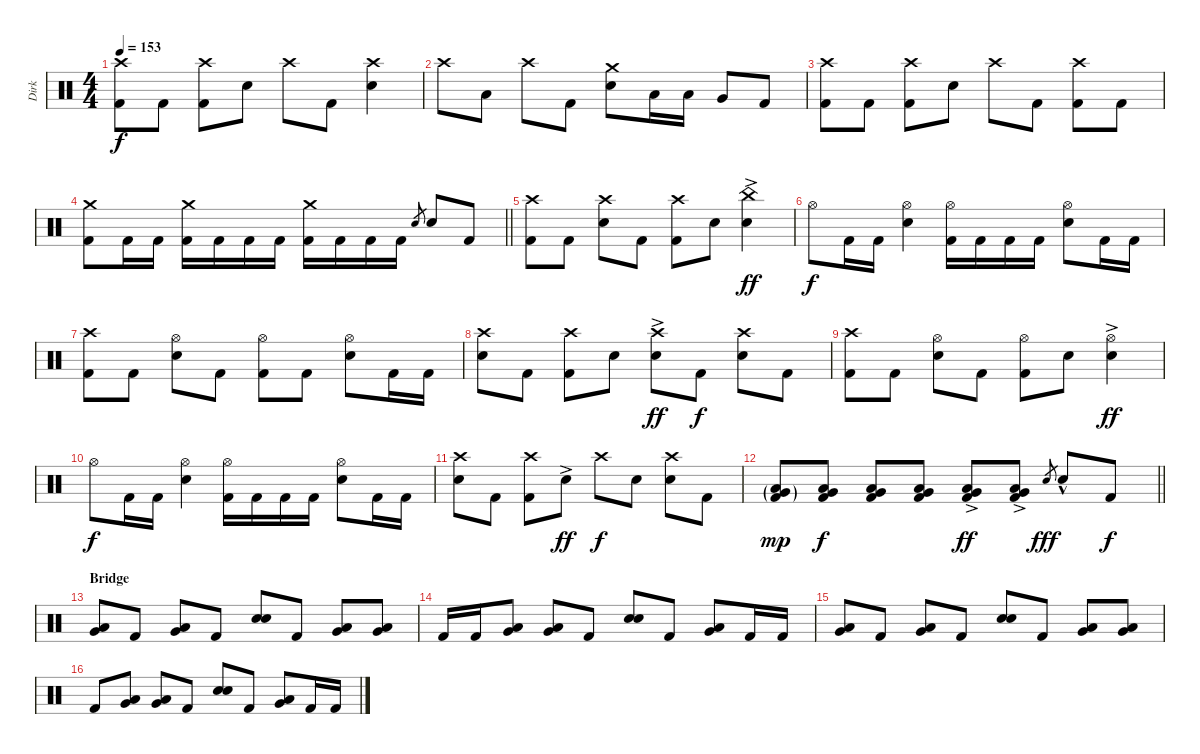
\track ("Dirk" "Dirk") {instrument percussion}
\staff {score}
\articulation defaults
\ts (4 4)
\tempo 153
\clef neutral
\ks c
("Crash high (hit)" "Kick (hit) 2").8{dy f} "Kick (hit) 2".8 ("Crash high (hit)" "Kick (hit) 2").8 "Electric Snare (hit)".8 "Crash high (hit)".8 "Kick (hit) 2".8 ("Crash high (hit)" "Electric Snare (hit)").4 |
"Crash high (hit)".8 "Low Tom (hit)".8 "Crash high (hit)".8 "Kick (hit) 2".8 ("Crash medium (hit)" "Electric Snare (hit)").8 "Low Tom (hit)".16 "Low Tom (hit)".16 "Very Low Tom (hit)".8 "Kick (hit) 2".8 |
("Crash high (hit)" "Kick (hit) 2").8 "Kick (hit) 2".8 ("Crash high (hit)" "Kick (hit) 2").8 "Electric Snare (hit)".8 "Crash high (hit)".8 "Kick (hit) 2".8 ("Crash high (hit)" "Kick (hit) 2").8 "Kick (hit) 2".8 |
\barLineRight lightlight
("Crash medium (hit)" "Kick (hit) 2").8 "Kick (hit) 2".16 "Kick (hit) 2".16 ("Crash medium (hit)" "Kick (hit) 2").16 "Kick (hit) 2".16 "Kick (hit) 2".16 "Kick (hit) 2".16 ("Crash medium (hit)" "Kick (hit) 2").16 "Kick (hit) 2".16 "Kick (hit) 2".16 "Kick (hit) 2".16 "Electric Snare (hit)".8{gr} "Electric Snare (hit)".8 "Kick (hit) 2".8 |
\section ("" "")
("Crash high (hit)" "Kick (hit) 2").8 "Kick (hit) 2".8 ("Crash high (hit)" "Electric Snare (hit)").8 "Kick (hit) 2".8 ("Crash high (hit)" "Kick (hit) 2").8 "Electric Snare (hit)".8 ("China (hit)" "Electric Snare (hit)"{ac}).4{dy ff} |
"Hi-Hat (open)".8{dy f} "Kick (hit) 2".16 "Kick (hit) 2".16 ("Hi-Hat (open)" "Electric Snare (hit)").4 ("Hi-Hat (open)" "Kick (hit) 2").16 "Kick (hit) 2".16 "Kick (hit) 2".16 "Kick (hit) 2".16 ("Hi-Hat (open)" "Electric Snare (hit)").8 "Kick (hit) 2".16 "Kick (hit) 2".16 |
("Crash high (hit)" "Kick (hit) 2").8 "Kick (hit) 2".8 ("Hi-Hat (open)" "Electric Snare (hit)").8 "Kick (hit) 2".8 ("Hi-Hat (open)" "Kick (hit) 2").8 "Kick (hit) 2".8 ("Hi-Hat (open)" "Electric Snare (hit)").8 "Kick (hit) 2".16 "Kick (hit) 2".16 |
("Crash high (hit)" "Electric Snare (hit)").8 "Kick (hit) 2".8 ("Crash high (hit)" "Kick (hit) 2").8 "Electric Snare (hit)".8 ("Crash high (hit)" "Electric Snare (hit)"{ac}).8{dy ff} "Kick (hit) 2".8{dy f} ("Crash high (hit)" "Electric Snare (hit)").8 "Kick (hit) 2".8 |
("Crash high (hit)" "Kick (hit) 2").8 "Kick (hit) 2".8 ("Hi-Hat (open)" "Electric Snare (hit)").8 "Kick (hit) 2".8 ("Hi-Hat (open)" "Kick (hit) 2").8 "Electric Snare (hit)".8 ("Hi-Hat (open)" "Electric Snare (hit)"{ac}).4{dy ff} |
"Hi-Hat (open)".8{dy f} "Kick (hit) 2".16 "Kick (hit) 2".16 ("Hi-Hat (open)" "Electric Snare (hit)").4 ("Hi-Hat (open)" "Kick (hit) 2").16 "Kick (hit) 2".16 "Kick (hit) 2".16 "Kick (hit) 2".16 ("Hi-Hat (open)" "Electric Snare (hit)").8 "Kick (hit) 2".16 "Kick (hit) 2".16 |
("Crash high (hit)" "Electric Snare (hit)").8 "Kick (hit) 2".8 ("Crash high (hit)" "Kick (hit) 2").8 "Electric Snare (hit)"{ac}.8{dy ff} "Crash high (hit)".8{dy f} "Electric Snare (hit)".8 ("Crash high (hit)" "Electric Snare (hit)").8 "Kick (hit) 2".8 |
\barLineRight lightlight
("Very Low Tom (hit)"{g} "Low Floor Tom (hit)"{g} "Kick (hit) 2"{g}).8{dy mp} ("Very Low Tom (hit)" "Low Floor Tom (hit)" "Kick (hit) 2").8{dy f} ("Very Low Tom (hit)" "Low Floor Tom (hit)" "Kick (hit) 2").8 ("Very Low Tom (hit)" "Low Floor Tom (hit)" "Kick (hit) 2").8 ("Very Low Tom (hit)"{ac} "Low Floor Tom (hit)"{ac} "Kick (hit) 2"{ac}).8{dy ff} ("Very Low Tom (hit)"{ac} "Low Floor Tom (hit)"{ac} "Kick (hit) 2"{ac}).8 "Electric Snare (hit)".8{gr dy fff} "Electric Snare (hit)"{hac}.8 "Kick (hit) 2".8{dy f} |
\section ("" "Bridge")
("Low Tom (hit)" "Very Low Tom (hit)").8 "Kick (hit) 2".8 ("Very Low Tom (hit)" "Low Floor Tom (hit)").8 "Kick (hit) 2".8 ("Electric Snare (hit)" "Electric Snare (hit)").8 "Kick (hit) 2".8 ("Very Low Tom (hit)" "Low Floor Tom (hit)").8 ("Very Low Tom (hit)" "Low Floor Tom (hit)").8 |
"Kick (hit) 2".16 "Kick (hit) 2".16 ("Very Low Tom (hit)" "Low Floor Tom (hit)").8 ("Very Low Tom (hit)" "Low Floor Tom (hit)").8 "Kick (hit) 2".8 ("Electric Snare (hit)" "Electric Snare (hit)").8 "Kick (hit) 2".8 ("Very Low Tom (hit)" "Low Floor Tom (hit)").8 "Kick (hit) 2".16 "Kick (hit) 2".16 |
("Low Tom (hit)" "Very Low Tom (hit)").8 "Kick (hit) 2".8 ("Very Low Tom (hit)" "Low Floor Tom (hit)").8 "Kick (hit) 2".8 ("Electric Snare (hit)" "Electric Snare (hit)").8 "Kick (hit) 2".8 ("Very Low Tom (hit)" "Low Floor Tom (hit)").8 ("Very Low Tom (hit)" "Low Floor Tom (hit)").8 |
"Kick (hit) 2".8 ("Very Low Tom (hit)" "Low Floor Tom (hit)").8 ("Very Low Tom (hit)" "Low Floor Tom (hit)").8 "Kick (hit) 2".8 ("Electric Snare (hit)" "Electric Snare (hit)").8 "Kick (hit) 2".8 ("Very Low Tom (hit)" "Low Floor Tom (hit)").8 "Kick (hit) 2".16 "Kick (hit) 2".16
